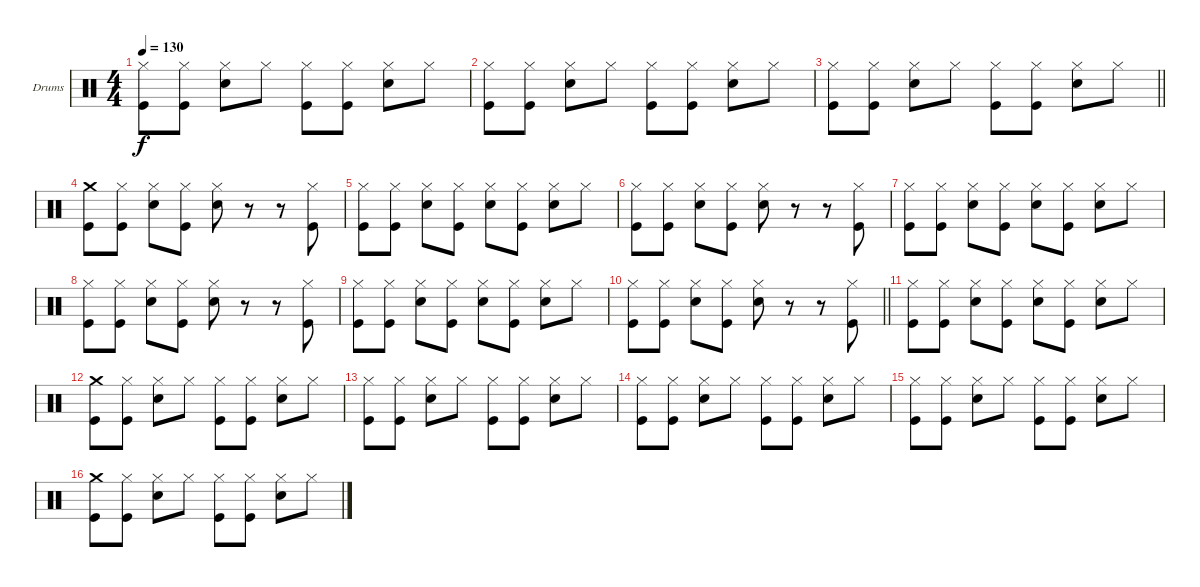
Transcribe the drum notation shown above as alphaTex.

\defaultSystemsLayout 4
\bracketExtendMode groupsimilarinstruments
\firstSystemTrackNameOrientation horizontal
\otherSystemsTrackNameOrientation horizontal
\track ("Drumkit" "Drums") {instrument percussion}
\staff {score}
\articulation defaults
\ts (4 4)
\tempo 130
\clef neutral
\ks aminor
("Kick (hit)" "Hi-Hat (closed)").8{dy f} ("Kick (hit)" "Hi-Hat (closed)").8 ("Snare (hit) 2" "Hi-Hat (closed)").8 "Hi-Hat (closed)".8 ("Kick (hit)" "Hi-Hat (closed)").8 ("Kick (hit)" "Hi-Hat (closed)").8 ("Snare (hit) 2" "Hi-Hat (closed)").8 "Hi-Hat (closed)".8 |
("Kick (hit)" "Hi-Hat (closed)").8 ("Kick (hit)" "Hi-Hat (closed)").8 ("Snare (hit) 2" "Hi-Hat (closed)").8 "Hi-Hat (closed)".8 ("Kick (hit)" "Hi-Hat (closed)").8 ("Kick (hit)" "Hi-Hat (closed)").8 ("Snare (hit) 2" "Hi-Hat (closed)").8 "Hi-Hat (closed)".8 |
\barLineRight lightlight
("Kick (hit)" "Hi-Hat (closed)").8 ("Kick (hit)" "Hi-Hat (closed)").8 ("Snare (hit) 2" "Hi-Hat (closed)").8 "Hi-Hat (closed)".8 ("Kick (hit)" "Hi-Hat (closed)").8 ("Kick (hit)" "Hi-Hat (closed)").8 ("Snare (hit) 2" "Hi-Hat (closed)").8 "Hi-Hat (closed)".8 |
("Kick (hit)" "Crash medium (hit)").8 ("Kick (hit)" "Hi-Hat (closed)").8 ("Snare (hit) 2" "Hi-Hat (closed)").8 ("Kick (hit)" "Hi-Hat (closed)").8 ("Snare (hit) 2" "Hi-Hat (closed)").8 r.8 r.8 ("Kick (hit)" "Hi-Hat (closed)").8 |
("Kick (hit)" "Hi-Hat (closed)").8 ("Kick (hit)" "Hi-Hat (closed)").8 ("Snare (hit) 2" "Hi-Hat (closed)").8 ("Kick (hit)" "Hi-Hat (closed)").8 ("Snare (hit) 2" "Hi-Hat (closed)").8 ("Kick (hit)" "Hi-Hat (closed)").8 ("Snare (hit) 2" "Hi-Hat (closed)").8 "Hi-Hat (closed)".8 |
("Kick (hit)" "Hi-Hat (closed)").8 ("Kick (hit)" "Hi-Hat (closed)").8 ("Snare (hit) 2" "Hi-Hat (closed)").8 ("Kick (hit)" "Hi-Hat (closed)").8 ("Snare (hit) 2" "Hi-Hat (closed)").8 r.8 r.8 ("Kick (hit)" "Hi-Hat (closed)").8 |
("Kick (hit)" "Hi-Hat (closed)").8 ("Kick (hit)" "Hi-Hat (closed)").8 ("Snare (hit) 2" "Hi-Hat (closed)").8 ("Kick (hit)" "Hi-Hat (closed)").8 ("Snare (hit) 2" "Hi-Hat (closed)").8 ("Kick (hit)" "Hi-Hat (closed)").8 ("Snare (hit) 2" "Hi-Hat (closed)").8 "Hi-Hat (closed)".8 |
("Kick (hit)" "Hi-Hat (closed)").8 ("Kick (hit)" "Hi-Hat (closed)").8 ("Snare (hit) 2" "Hi-Hat (closed)").8 ("Kick (hit)" "Hi-Hat (closed)").8 ("Snare (hit) 2" "Hi-Hat (closed)").8 r.8 r.8 ("Kick (hit)" "Hi-Hat (closed)").8 |
("Kick (hit)" "Hi-Hat (closed)").8 ("Kick (hit)" "Hi-Hat (closed)").8 ("Snare (hit) 2" "Hi-Hat (closed)").8 ("Kick (hit)" "Hi-Hat (closed)").8 ("Snare (hit) 2" "Hi-Hat (closed)").8 ("Kick (hit)" "Hi-Hat (closed)").8 ("Snare (hit) 2" "Hi-Hat (closed)").8 "Hi-Hat (closed)".8 |
\barLineRight lightlight
("Kick (hit)" "Hi-Hat (closed)").8 ("Kick (hit)" "Hi-Hat (closed)").8 ("Snare (hit) 2" "Hi-Hat (closed)").8 ("Kick (hit)" "Hi-Hat (closed)").8 ("Snare (hit) 2" "Hi-Hat (closed)").8 r.8 r.8 ("Kick (hit)" "Hi-Hat (closed)").8 |
("Kick (hit)" "Hi-Hat (closed)").8 ("Kick (hit)" "Hi-Hat (closed)").8 ("Snare (hit) 2" "Hi-Hat (closed)").8 ("Kick (hit)" "Hi-Hat (closed)").8 ("Snare (hit) 2" "Hi-Hat (closed)").8 ("Kick (hit)" "Hi-Hat (closed)").8 ("Snare (hit) 2" "Hi-Hat (closed)").8 "Hi-Hat (closed)".8 |
("Kick (hit)" "Crash medium (hit)").8 ("Kick (hit)" "Hi-Hat (closed)").8 ("Snare (hit) 2" "Hi-Hat (closed)").8 "Hi-Hat (closed)".8 ("Kick (hit)" "Hi-Hat (closed)").8 ("Kick (hit)" "Hi-Hat (closed)").8 ("Snare (hit) 2" "Hi-Hat (closed)").8 "Hi-Hat (closed)".8 |
("Kick (hit)" "Hi-Hat (closed)").8 ("Kick (hit)" "Hi-Hat (closed)").8 ("Snare (hit) 2" "Hi-Hat (closed)").8 "Hi-Hat (closed)".8 ("Kick (hit)" "Hi-Hat (closed)").8 ("Kick (hit)" "Hi-Hat (closed)").8 ("Snare (hit) 2" "Hi-Hat (closed)").8 "Hi-Hat (closed)".8 |
("Kick (hit)" "Hi-Hat (closed)").8 ("Kick (hit)" "Hi-Hat (closed)").8 ("Snare (hit) 2" "Hi-Hat (closed)").8 "Hi-Hat (closed)".8 ("Kick (hit)" "Hi-Hat (closed)").8 ("Kick (hit)" "Hi-Hat (closed)").8 ("Snare (hit) 2" "Hi-Hat (closed)").8 "Hi-Hat (closed)".8 |
("Kick (hit)" "Hi-Hat (closed)").8 ("Kick (hit)" "Hi-Hat (closed)").8 ("Snare (hit) 2" "Hi-Hat (closed)").8 "Hi-Hat (closed)".8 ("Kick (hit)" "Hi-Hat (closed)").8 ("Kick (hit)" "Hi-Hat (closed)").8 ("Snare (hit) 2" "Hi-Hat (closed)").8 "Hi-Hat (closed)".8 |
("Kick (hit)" "Crash medium (hit)").8 ("Kick (hit)" "Hi-Hat (closed)").8 ("Snare (hit) 2" "Hi-Hat (closed)").8 "Hi-Hat (closed)".8 ("Kick (hit)" "Hi-Hat (closed)").8 ("Kick (hit)" "Hi-Hat (closed)").8 ("Snare (hit) 2" "Hi-Hat (closed)").8 "Hi-Hat (closed)".8
